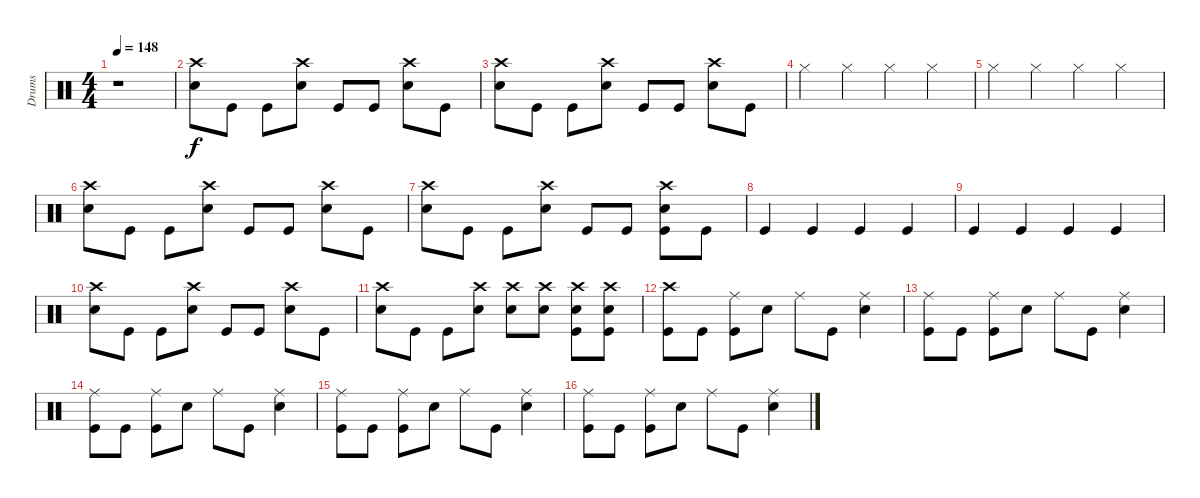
\track ("Drums" "Drums") {instrument percussion}
\staff {score}
\articulation defaults
\ts (4 4)
\tempo 148
\clef neutral
\ks c
r.1{dy f} |
("Crash high (hit)" "Snare (hit) 2").8 "Kick (hit)".8 "Kick (hit)".8 ("Crash high (hit)" "Snare (hit) 2").8 "Kick (hit)".8 "Kick (hit)".8 ("Crash high (hit)" "Snare (hit) 2").8 "Kick (hit)".8 |
("Crash high (hit)" "Snare (hit) 2").8 "Kick (hit)".8 "Kick (hit)".8 ("Crash high (hit)" "Snare (hit) 2").8 "Kick (hit)".8 "Kick (hit)".8 ("Crash high (hit)" "Snare (hit) 2").8 "Kick (hit)".8 |
"Hi-Hat (closed)".4 "Hi-Hat (closed)".4 "Hi-Hat (closed)".4 "Hi-Hat (closed)".4 |
"Hi-Hat (closed)".4 "Hi-Hat (closed)".4 "Hi-Hat (closed)".4 "Hi-Hat (closed)".4 |
("Crash high (hit)" "Snare (hit) 2").8 "Kick (hit)".8 "Kick (hit)".8 ("Crash high (hit)" "Snare (hit) 2").8 "Kick (hit)".8 "Kick (hit)".8 ("Crash high (hit)" "Snare (hit) 2").8 "Kick (hit)".8 |
("Crash high (hit)" "Snare (hit) 2").8 "Kick (hit)".8 "Kick (hit)".8 ("Crash high (hit)" "Snare (hit) 2").8 "Kick (hit)".8 "Kick (hit)".8 ("Crash high (hit)" "Snare (hit) 2" "Kick (hit)").8 "Kick (hit)".8 |
"Kick (hit)".4 "Kick (hit)".4 "Kick (hit)".4 "Kick (hit)".4 |
"Kick (hit)".4 "Kick (hit)".4 "Kick (hit)".4 "Kick (hit)".4 |
("Crash high (hit)" "Snare (hit) 2").8 "Kick (hit)".8 "Kick (hit)".8 ("Crash high (hit)" "Snare (hit) 2").8 "Kick (hit)".8 "Kick (hit)".8 ("Crash high (hit)" "Snare (hit) 2").8 "Kick (hit)".8 |
("Crash high (hit)" "Snare (hit) 2").8 "Kick (hit)".8 "Kick (hit)".8 ("Crash high (hit)" "Snare (hit) 2").8 ("Crash high (hit)" "Snare (hit) 2").8 ("Crash high (hit)" "Snare (hit) 2").8 ("Crash high (hit)" "Snare (hit) 2" "Kick (hit)").8 ("Crash high (hit)" "Snare (hit) 2" "Kick (hit)").8 |
\section ("" "")
("Crash high (hit)" "Kick (hit)").8 "Kick (hit)".8 ("Ride (middle)" "Kick (hit)").8 "Snare (hit) 2".8 "Ride (middle)".8 "Kick (hit)".8 ("Ride (middle)" "Snare (hit) 2").4 |
("Ride (middle)" "Kick (hit)").8 "Kick (hit)".8 ("Ride (middle)" "Kick (hit)").8 "Snare (hit) 2".8 "Ride (middle)".8 "Kick (hit)".8 ("Ride (middle)" "Snare (hit) 2").4 |
("Ride (middle)" "Kick (hit)").8 "Kick (hit)".8 ("Ride (middle)" "Kick (hit)").8 "Snare (hit) 2".8 "Ride (middle)".8 "Kick (hit)".8 ("Ride (middle)" "Snare (hit) 2").4 |
("Ride (middle)" "Kick (hit)").8 "Kick (hit)".8 ("Ride (middle)" "Kick (hit)").8 "Snare (hit) 2".8 "Ride (middle)".8 "Kick (hit)".8 ("Ride (middle)" "Snare (hit) 2").4 |
("Ride (middle)" "Kick (hit)").8 "Kick (hit)".8 ("Ride (middle)" "Kick (hit)").8 "Snare (hit) 2".8 "Ride (middle)".8 "Kick (hit)".8 ("Ride (middle)" "Snare (hit) 2").4
